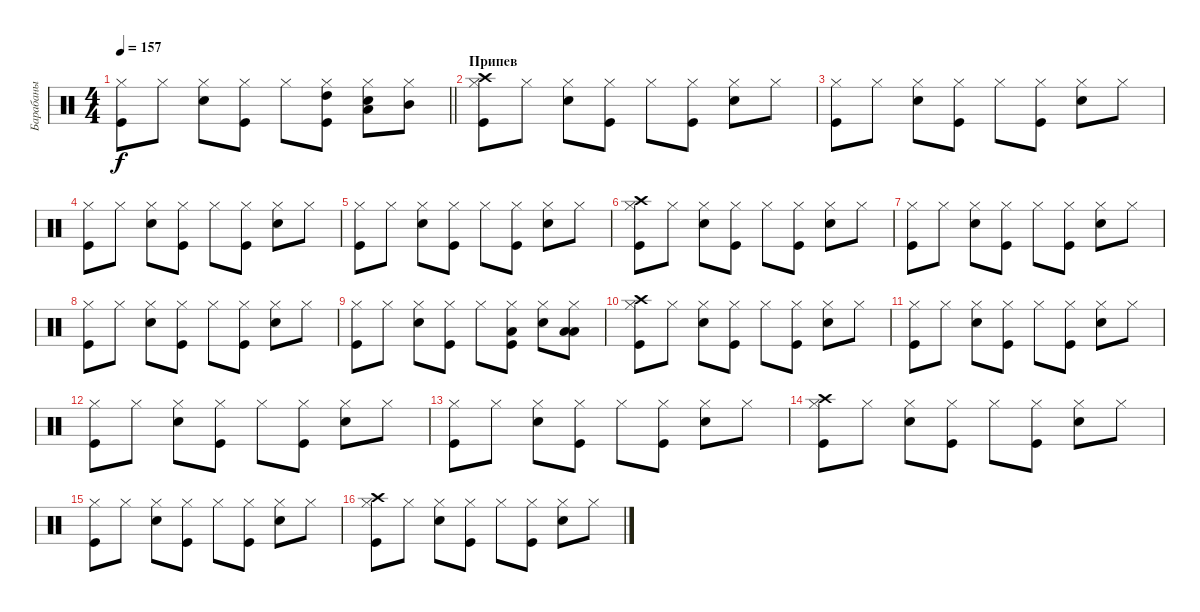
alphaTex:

\track ("Барабаны" "Барабаны") {instrument percussion}
\staff {score}
\articulation defaults
\ts (4 4)
\tempo 157
\clef neutral
\barLineRight lightlight
\ks c
("Kick (hit)" "Hi-Hat (closed)").8{dy f} "Hi-Hat (closed)".8 ("Snare (hit) 2" "Hi-Hat (closed)").8 ("Kick (hit)" "Hi-Hat (closed)").8 "Hi-Hat (closed)".8 ("Kick (hit)" "Hi-Hat (closed)" "High Tom (hit)").8 ("Snare (hit) 2" "Hi-Hat (closed)" "Low Tom (hit)").8 ("Hi-Hat (closed)" "Mid Tom (hit)").8 |
\section ("" "Припев")
("Kick (hit)" "Hi-Hat (closed)" "Crash high (hit)").8 "Hi-Hat (closed)".8 ("Snare (hit) 2" "Hi-Hat (closed)").8 ("Kick (hit)" "Hi-Hat (closed)").8 "Hi-Hat (closed)".8 ("Kick (hit)" "Hi-Hat (closed)").8 ("Snare (hit) 2" "Hi-Hat (closed)").8 "Hi-Hat (closed)".8 |
("Kick (hit)" "Hi-Hat (closed)").8 "Hi-Hat (closed)".8 ("Snare (hit) 2" "Hi-Hat (closed)").8 ("Kick (hit)" "Hi-Hat (closed)").8 "Hi-Hat (closed)".8 ("Kick (hit)" "Hi-Hat (closed)").8 ("Snare (hit) 2" "Hi-Hat (closed)").8 "Hi-Hat (closed)".8 |
("Kick (hit)" "Hi-Hat (closed)").8 "Hi-Hat (closed)".8 ("Snare (hit) 2" "Hi-Hat (closed)").8 ("Kick (hit)" "Hi-Hat (closed)").8 "Hi-Hat (closed)".8 ("Kick (hit)" "Hi-Hat (closed)").8 ("Snare (hit) 2" "Hi-Hat (closed)").8 "Hi-Hat (closed)".8 |
("Kick (hit)" "Hi-Hat (closed)").8 "Hi-Hat (closed)".8 ("Snare (hit) 2" "Hi-Hat (closed)").8 ("Kick (hit)" "Hi-Hat (closed)").8 "Hi-Hat (closed)".8 ("Kick (hit)" "Hi-Hat (closed)").8 ("Snare (hit) 2" "Hi-Hat (closed)").8 "Hi-Hat (closed)".8 |
("Kick (hit)" "Hi-Hat (closed)" "Crash high (hit)").8 "Hi-Hat (closed)".8 ("Snare (hit) 2" "Hi-Hat (closed)").8 ("Kick (hit)" "Hi-Hat (closed)").8 "Hi-Hat (closed)".8 ("Kick (hit)" "Hi-Hat (closed)").8 ("Snare (hit) 2" "Hi-Hat (closed)").8 "Hi-Hat (closed)".8 |
("Kick (hit)" "Hi-Hat (closed)").8 "Hi-Hat (closed)".8 ("Snare (hit) 2" "Hi-Hat (closed)").8 ("Kick (hit)" "Hi-Hat (closed)").8 "Hi-Hat (closed)".8 ("Kick (hit)" "Hi-Hat (closed)").8 ("Snare (hit) 2" "Hi-Hat (closed)").8 "Hi-Hat (closed)".8 |
("Kick (hit)" "Hi-Hat (closed)").8 "Hi-Hat (closed)".8 ("Snare (hit) 2" "Hi-Hat (closed)").8 ("Kick (hit)" "Hi-Hat (closed)").8 "Hi-Hat (closed)".8 ("Kick (hit)" "Hi-Hat (closed)").8 ("Snare (hit) 2" "Hi-Hat (closed)").8 "Hi-Hat (closed)".8 |
("Kick (hit)" "Hi-Hat (closed)").8 "Hi-Hat (closed)".8 ("Snare (hit) 2" "Hi-Hat (closed)").8 ("Kick (hit)" "Hi-Hat (closed)").8 "Hi-Hat (closed)".8 ("Kick (hit)" "Hi-Hat (closed)" "Low Floor Tom (hit)").8 ("Snare (hit) 2" "Hi-Hat (closed)").8 ("Hi-Hat (closed)" "Low Floor Tom (hit)" "Low Tom (hit)").8 |
("Kick (hit)" "Hi-Hat (closed)" "Crash high (hit)").8 "Hi-Hat (closed)".8 ("Snare (hit) 2" "Hi-Hat (closed)").8 ("Kick (hit)" "Hi-Hat (closed)").8 "Hi-Hat (closed)".8 ("Kick (hit)" "Hi-Hat (closed)").8 ("Snare (hit) 2" "Hi-Hat (closed)").8 "Hi-Hat (closed)".8 |
("Kick (hit)" "Hi-Hat (closed)").8 "Hi-Hat (closed)".8 ("Snare (hit) 2" "Hi-Hat (closed)").8 ("Kick (hit)" "Hi-Hat (closed)").8 "Hi-Hat (closed)".8 ("Kick (hit)" "Hi-Hat (closed)").8 ("Snare (hit) 2" "Hi-Hat (closed)").8 "Hi-Hat (closed)".8 |
("Kick (hit)" "Hi-Hat (closed)").8 "Hi-Hat (closed)".8 ("Snare (hit) 2" "Hi-Hat (closed)").8 ("Kick (hit)" "Hi-Hat (closed)").8 "Hi-Hat (closed)".8 ("Kick (hit)" "Hi-Hat (closed)").8 ("Snare (hit) 2" "Hi-Hat (closed)").8 "Hi-Hat (closed)".8 |
("Kick (hit)" "Hi-Hat (closed)").8 "Hi-Hat (closed)".8 ("Snare (hit) 2" "Hi-Hat (closed)").8 ("Kick (hit)" "Hi-Hat (closed)").8 "Hi-Hat (closed)".8 ("Kick (hit)" "Hi-Hat (closed)").8 ("Snare (hit) 2" "Hi-Hat (closed)").8 "Hi-Hat (closed)".8 |
("Kick (hit)" "Hi-Hat (closed)" "Crash high (hit)").8 "Hi-Hat (closed)".8 ("Snare (hit) 2" "Hi-Hat (closed)").8 ("Kick (hit)" "Hi-Hat (closed)").8 "Hi-Hat (closed)".8 ("Kick (hit)" "Hi-Hat (closed)").8 ("Snare (hit) 2" "Hi-Hat (closed)").8 "Hi-Hat (closed)".8 |
("Kick (hit)" "Hi-Hat (closed)").8 "Hi-Hat (closed)".8 ("Snare (hit) 2" "Hi-Hat (closed)").8 ("Kick (hit)" "Hi-Hat (closed)").8 "Hi-Hat (closed)".8 ("Kick (hit)" "Hi-Hat (closed)").8 ("Snare (hit) 2" "Hi-Hat (closed)").8 "Hi-Hat (closed)".8 |
("Kick (hit)" "Hi-Hat (closed)" "Crash high (hit)").8 "Hi-Hat (closed)".8 ("Snare (hit) 2" "Hi-Hat (closed)").8 ("Kick (hit)" "Hi-Hat (closed)").8 "Hi-Hat (closed)".8 ("Kick (hit)" "Hi-Hat (closed)").8 ("Snare (hit) 2" "Hi-Hat (closed)").8 "Hi-Hat (closed)".8
